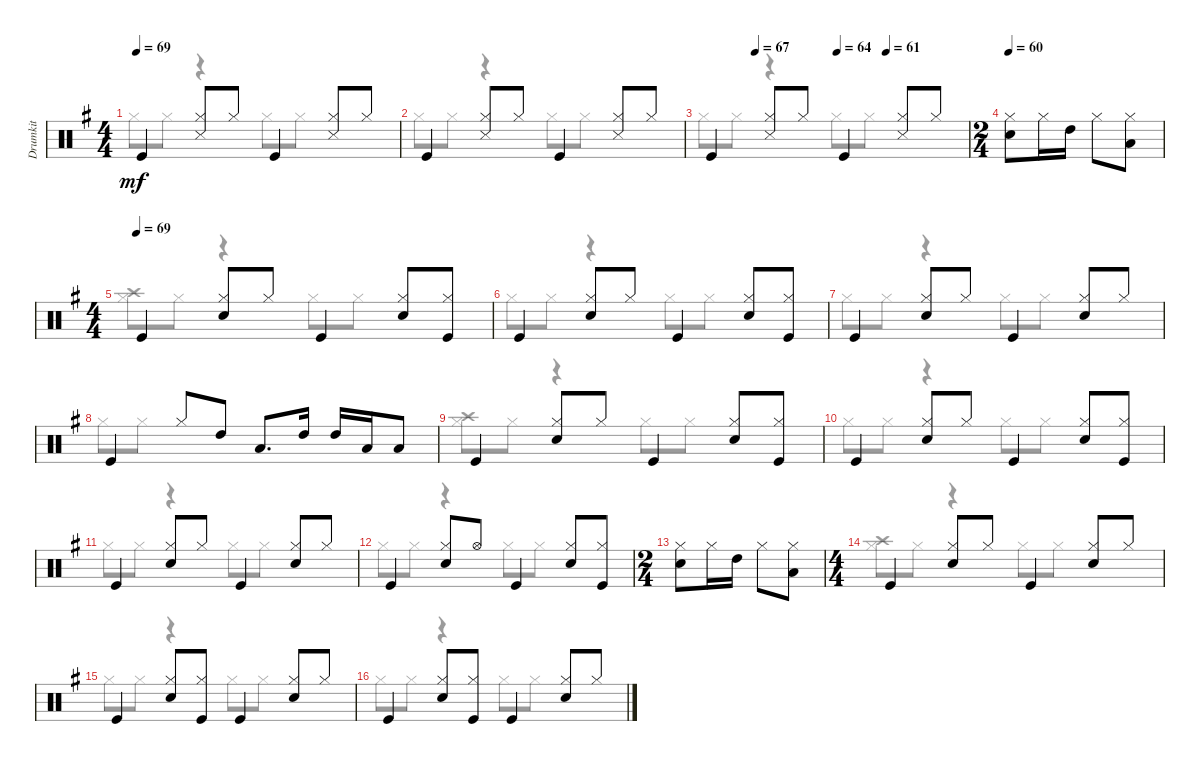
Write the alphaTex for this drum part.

\track ("Drumkit" "Drumkit") {instrument percussion}
\staff {score}
\articulation defaults
\voice
\ts (4 4)
\tempo 69
\clef neutral
\ks eminor "Kick (hit)".4{dy mf}
("Snare (side stick) 3" "Hi-Hat (closed)").8 "Hi-Hat (closed)".8 "Kick (hit)".4 ("Snare (side stick) 3" "Hi-Hat (closed)").8 "Hi-Hat (closed)".8 |
"Kick (hit)".4 ("Snare (side stick) 3" "Hi-Hat (closed)").8 "Hi-Hat (closed)".8 "Kick (hit)".4 ("Snare (side stick) 3" "Hi-Hat (closed)").8 "Hi-Hat (closed)".8 |
\tempo (67 0.1875)
\tempo (64 0.5)
\tempo (61 0.6875)
"Kick (hit)".4 ("Hi-Hat (closed)" "Snare (side stick) 3").8 "Hi-Hat (closed)".8 "Kick (hit)".4 ("Hi-Hat (closed)" "Snare (side stick) 3").8 "Hi-Hat (closed)".8 |
\ts (2 4)
\tempo 60
("Hi-Hat (closed)" "Snare (hit) 2").8 "Hi-Hat (closed)".16 "High Tom (hit)".16 "Hi-Hat (closed)".8 ("Low Tom (hit)" "Hi-Hat (closed)").8 |
\ts (4 4)
\tempo (69)
"Kick (hit)".4 ("Hi-Hat (closed)" "Snare (hit) 2").8 "Hi-Hat (closed)".8 "Kick (hit)".4 ("Hi-Hat (closed)" "Snare (hit) 2").8 ("Kick (hit)" "Hi-Hat (closed)").8 |
"Kick (hit)".4 ("Snare (hit) 2" "Hi-Hat (closed)").8 "Hi-Hat (closed)".8 "Kick (hit)".4 ("Snare (hit) 2" "Hi-Hat (closed)").8 ("Kick (hit)" "Hi-Hat (closed)").8 |
"Kick (hit)".4 ("Hi-Hat (closed)" "Snare (hit) 2").8 "Hi-Hat (closed)".8 "Kick (hit)".4 ("Snare (hit) 2" "Hi-Hat (closed)").8 "Hi-Hat (closed)".8 |
"Kick (hit)".4 "Hi-Hat (closed)".8 "High Tom (hit)".8 "Low Tom (hit)".8{d} "High Tom (hit)".16 "High Tom (hit)".16 "Low Tom (hit)".16 "Low Tom (hit)".8 |
"Kick (hit)".4 ("Hi-Hat (closed)" "Snare (hit) 2").8 "Hi-Hat (closed)".8 "Kick (hit)".4 ("Hi-Hat (closed)" "Snare (hit) 2").8 ("Hi-Hat (closed)" "Kick (hit)").8 |
"Kick (hit)".4 ("Snare (hit) 2" "Hi-Hat (closed)").8 "Hi-Hat (closed)".8 "Kick (hit)".4 ("Snare (hit) 2" "Hi-Hat (closed)").8 ("Kick (hit)" "Hi-Hat (closed)").8 |
"Kick (hit)".4 ("Hi-Hat (closed)" "Snare (hit) 2").8 "Hi-Hat (closed)".8 "Kick (hit)".4 ("Hi-Hat (closed)" "Snare (hit) 2").8 "Hi-Hat (closed)".8 |
"Kick (hit)".4 ("Snare (hit) 2" "Hi-Hat (closed)").8 "Hi-Hat (open)".8 "Kick (hit)".4 ("Snare (hit) 2" "Hi-Hat (closed)").8 ("Hi-Hat (closed)" "Kick (hit)").8 |
\ts (2 4)
("Hi-Hat (closed)" "Snare (hit) 2").8 "Hi-Hat (closed)".16 "High Tom (hit)".16 "Hi-Hat (closed)".8 ("Low Tom (hit)" "Hi-Hat (closed)").8 |
\ts (4 4)
"Kick (hit)".4 ("Snare (hit) 2" "Hi-Hat (closed)").8 "Hi-Hat (closed)".8 "Kick (hit)".4 ("Snare (hit) 2" "Hi-Hat (closed)").8 "Hi-Hat (closed)".8 |
"Kick (hit)".4 ("Hi-Hat (closed)" "Snare (hit) 2").8 ("Hi-Hat (closed)" "Kick (hit)").8 "Kick (hit)".4 ("Hi-Hat (closed)" "Snare (hit) 2").8 "Hi-Hat (closed)".8 |
"Kick (hit)".4 ("Snare (hit) 2" "Hi-Hat (closed)").8 ("Kick (hit)" "Hi-Hat (closed)").8 "Kick (hit)".4 ("Snare (hit) 2" "Hi-Hat (closed)").8 "Hi-Hat (closed)".8
\voice
\clef neutral
\ottava regular
\simile none
\ks eminor "Hi-Hat (closed)".8{dy mf} "Hi-Hat (closed)".8
r.4 "Hi-Hat (closed)".8 "Hi-Hat (closed)".8 |
"Hi-Hat (closed)".8 "Hi-Hat (closed)".8 r.4 "Hi-Hat (closed)".8 "Hi-Hat (closed)".8 |
"Hi-Hat (closed)".8 "Hi-Hat (closed)".8 r.4 "Hi-Hat (closed)".8 "Hi-Hat (closed)".8 |
|
("Hi-Hat (closed)" "Crash high (hit)").8 "Hi-Hat (closed)".8 r.4 "Hi-Hat (closed)".8 "Hi-Hat (closed)".8 |
"Hi-Hat (closed)".8 "Hi-Hat (closed)".8 r.4 "Hi-Hat (closed)".8 "Hi-Hat (closed)".8 |
"Hi-Hat (closed)".8 "Hi-Hat (closed)".8 r.4 "Hi-Hat (closed)".8 "Hi-Hat (closed)".8 |
"Hi-Hat (closed)".8 "Hi-Hat (closed)".8 |
("Hi-Hat (closed)" "Crash high (hit)").8 "Hi-Hat (closed)".8 r.4 "Hi-Hat (closed)".8 "Hi-Hat (closed)".8 |
"Hi-Hat (closed)".8 "Hi-Hat (closed)".8 r.4 "Hi-Hat (closed)".8 "Hi-Hat (closed)".8 |
"Hi-Hat (closed)".8 "Hi-Hat (closed)".8 r.4 "Hi-Hat (closed)".8 "Hi-Hat (closed)".8 |
"Hi-Hat (closed)".8 "Hi-Hat (closed)".8 r.4 "Hi-Hat (closed)".8 "Hi-Hat (closed)".8 |
|
("Hi-Hat (closed)" "Crash high (hit)").8 "Hi-Hat (closed)".8 r.4 "Hi-Hat (closed)".8 "Hi-Hat (closed)".8 |
"Hi-Hat (closed)".8 "Hi-Hat (closed)".8 r.4 "Hi-Hat (closed)".8 "Hi-Hat (closed)".8 |
"Hi-Hat (closed)".8 "Hi-Hat (closed)".8 r.4 "Hi-Hat (closed)".8 "Hi-Hat (closed)".8
